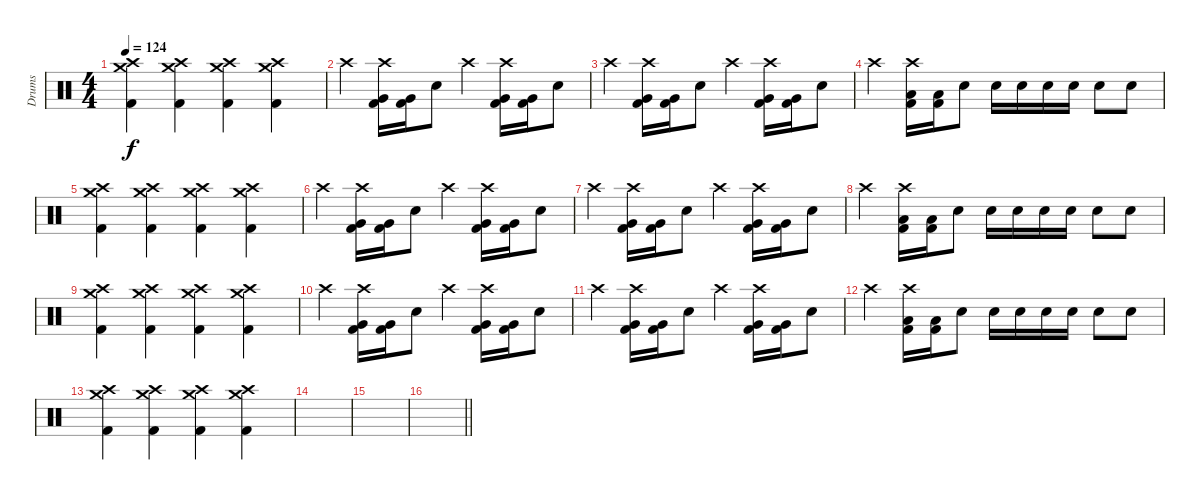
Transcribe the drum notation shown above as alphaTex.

\track ("Drums" "Drums") {instrument percussion}
\staff {score}
\articulation defaults
\ts (4 4)
\tempo 124
\clef neutral
\ks c
("Crash medium (hit)" "Crash high (hit)" "Kick (hit) 2").4{dy f} ("Crash medium (hit)" "Crash high (hit)" "Kick (hit) 2").4 ("Crash medium (hit)" "Crash high (hit)" "Kick (hit) 2").4 ("Crash medium (hit)" "Crash high (hit)" "Kick (hit) 2").4 |
"Crash high (hit)".4 ("Kick (hit) 2" "Very Low Tom (hit)" "Crash high (hit)").16 ("Very Low Tom (hit)" "Kick (hit) 2").16 "Electric Snare (hit)".8 "Crash high (hit)".4 ("Kick (hit) 2" "Very Low Tom (hit)" "Crash high (hit)").16 ("Kick (hit) 2" "Very Low Tom (hit)").16 "Electric Snare (hit)".8 |
"Crash high (hit)".4 ("Kick (hit) 2" "Very Low Tom (hit)" "Crash high (hit)").16 ("Very Low Tom (hit)" "Kick (hit) 2").16 "Electric Snare (hit)".8 "Crash high (hit)".4 ("Kick (hit) 2" "Very Low Tom (hit)" "Crash high (hit)").16 ("Kick (hit) 2" "Very Low Tom (hit)").16 "Electric Snare (hit)".8 |
"Crash high (hit)".4 ("Kick (hit) 2" "Low Floor Tom (hit)" "Crash high (hit)").16 ("Low Floor Tom (hit)" "Kick (hit) 2").16 "Electric Snare (hit)".8 "Electric Snare (hit)".16 "Electric Snare (hit)".16 "Electric Snare (hit)".16 "Electric Snare (hit)".16 "Electric Snare (hit)".8 "Electric Snare (hit)".8 |
("Crash medium (hit)" "Crash high (hit)" "Kick (hit) 2").4 ("Crash medium (hit)" "Crash high (hit)" "Kick (hit) 2").4 ("Crash medium (hit)" "Crash high (hit)" "Kick (hit) 2").4 ("Crash medium (hit)" "Crash high (hit)" "Kick (hit) 2").4 |
"Crash high (hit)".4 ("Kick (hit) 2" "Very Low Tom (hit)" "Crash high (hit)").16 ("Very Low Tom (hit)" "Kick (hit) 2").16 "Electric Snare (hit)".8 "Crash high (hit)".4 ("Kick (hit) 2" "Very Low Tom (hit)" "Crash high (hit)").16 ("Kick (hit) 2" "Very Low Tom (hit)").16 "Electric Snare (hit)".8 |
"Crash high (hit)".4 ("Kick (hit) 2" "Very Low Tom (hit)" "Crash high (hit)").16 ("Very Low Tom (hit)" "Kick (hit) 2").16 "Electric Snare (hit)".8 "Crash high (hit)".4 ("Kick (hit) 2" "Very Low Tom (hit)" "Crash high (hit)").16 ("Kick (hit) 2" "Very Low Tom (hit)").16 "Electric Snare (hit)".8 |
"Crash high (hit)".4 ("Kick (hit) 2" "Low Floor Tom (hit)" "Crash high (hit)").16 ("Low Floor Tom (hit)" "Kick (hit) 2").16 "Electric Snare (hit)".8 "Electric Snare (hit)".16 "Electric Snare (hit)".16 "Electric Snare (hit)".16 "Electric Snare (hit)".16 "Electric Snare (hit)".8 "Electric Snare (hit)".8 |
("Crash medium (hit)" "Crash high (hit)" "Kick (hit) 2").4 ("Crash medium (hit)" "Crash high (hit)" "Kick (hit) 2").4 ("Crash medium (hit)" "Crash high (hit)" "Kick (hit) 2").4 ("Crash medium (hit)" "Crash high (hit)" "Kick (hit) 2").4 |
"Crash high (hit)".4 ("Kick (hit) 2" "Very Low Tom (hit)" "Crash high (hit)").16 ("Very Low Tom (hit)" "Kick (hit) 2").16 "Electric Snare (hit)".8 "Crash high (hit)".4 ("Kick (hit) 2" "Very Low Tom (hit)" "Crash high (hit)").16 ("Kick (hit) 2" "Very Low Tom (hit)").16 "Electric Snare (hit)".8 |
"Crash high (hit)".4 ("Kick (hit) 2" "Very Low Tom (hit)" "Crash high (hit)").16 ("Very Low Tom (hit)" "Kick (hit) 2").16 "Electric Snare (hit)".8 "Crash high (hit)".4 ("Kick (hit) 2" "Very Low Tom (hit)" "Crash high (hit)").16 ("Kick (hit) 2" "Very Low Tom (hit)").16 "Electric Snare (hit)".8 |
"Crash high (hit)".4 ("Kick (hit) 2" "Low Floor Tom (hit)" "Crash high (hit)").16 ("Low Floor Tom (hit)" "Kick (hit) 2").16 "Electric Snare (hit)".8 "Electric Snare (hit)".16 "Electric Snare (hit)".16 "Electric Snare (hit)".16 "Electric Snare (hit)".16 "Electric Snare (hit)".8 "Electric Snare (hit)".8 |
("Crash medium (hit)" "Crash high (hit)" "Kick (hit) 2").4 ("Crash medium (hit)" "Crash high (hit)" "Kick (hit) 2").4 ("Crash medium (hit)" "Crash high (hit)" "Kick (hit) 2").4 ("Crash medium (hit)" "Crash high (hit)" "Kick (hit) 2").4 |
|
|
\barLineRight lightlight
